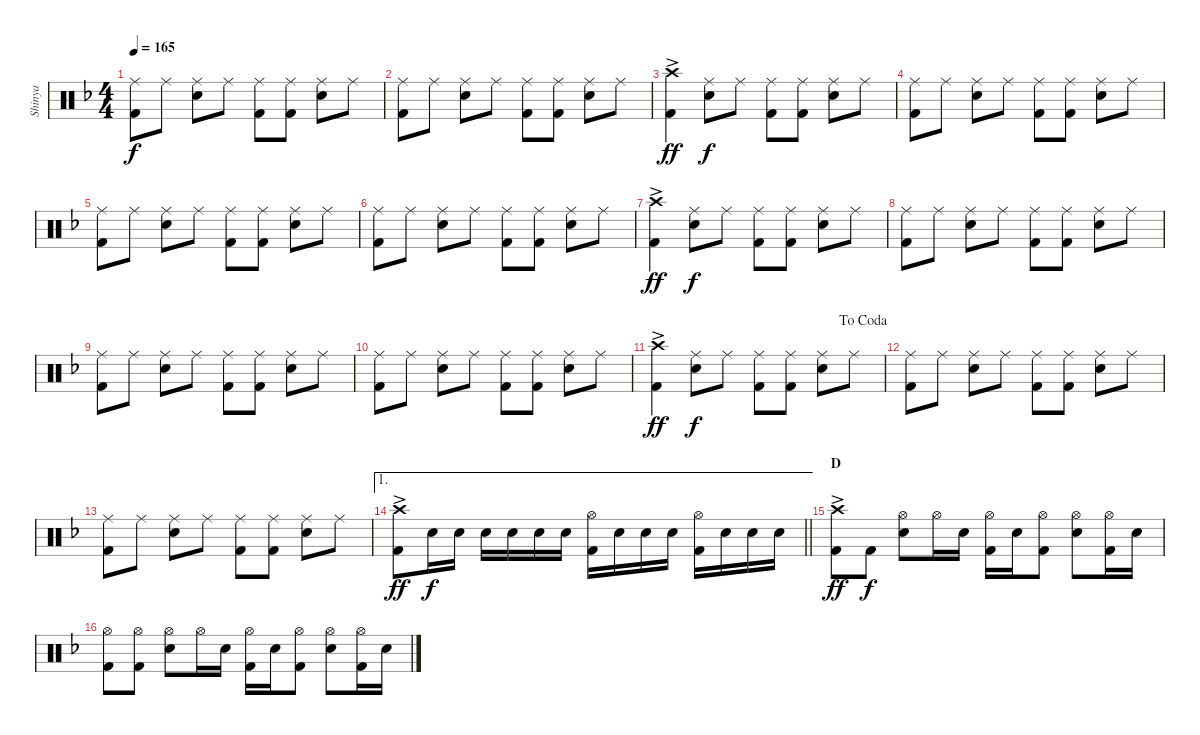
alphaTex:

\track ("Shinya" "Shinya") {instrument percussion}
\staff {score}
\articulation defaults
\ts (4 4)
\tempo 165
\clef neutral
\ks dminor
("Ride (middle)" "Kick (hit) 2").8{dy f} "Ride (middle)".8 ("Ride (middle)" "Snare (hit) 2").8 "Ride (middle)".8 ("Ride (middle)" "Kick (hit) 2").8 ("Ride (middle)" "Kick (hit) 2").8 ("Ride (middle)" "Snare (hit) 2").8 "Ride (middle)".8 |
("Ride (middle)" "Kick (hit) 2").8 "Ride (middle)".8 ("Ride (middle)" "Snare (hit) 2").8 "Ride (middle)".8 ("Ride (middle)" "Kick (hit) 2").8 ("Ride (middle)" "Kick (hit) 2").8 ("Ride (middle)" "Snare (hit) 2").8 "Ride (middle)".8 |
("Crash high (hit)"{ac} "Kick (hit) 2").4{dy ff} ("Ride (middle)" "Snare (hit) 2").8{dy f} "Ride (middle)".8 ("Ride (middle)" "Kick (hit) 2").8 ("Ride (middle)" "Kick (hit) 2").8 ("Ride (middle)" "Snare (hit) 2").8 "Ride (middle)".8 |
("Ride (middle)" "Kick (hit) 2").8 "Ride (middle)".8 ("Ride (middle)" "Snare (hit) 2").8 "Ride (middle)".8 ("Ride (middle)" "Kick (hit) 2").8 ("Ride (middle)" "Kick (hit) 2").8 ("Ride (middle)" "Snare (hit) 2").8 "Ride (middle)".8 |
("Ride (middle)" "Kick (hit) 2").8 "Ride (middle)".8 ("Ride (middle)" "Snare (hit) 2").8 "Ride (middle)".8 ("Ride (middle)" "Kick (hit) 2").8 ("Ride (middle)" "Kick (hit) 2").8 ("Ride (middle)" "Snare (hit) 2").8 "Ride (middle)".8 |
("Ride (middle)" "Kick (hit) 2").8 "Ride (middle)".8 ("Ride (middle)" "Snare (hit) 2").8 "Ride (middle)".8 ("Ride (middle)" "Kick (hit) 2").8 ("Ride (middle)" "Kick (hit) 2").8 ("Ride (middle)" "Snare (hit) 2").8 "Ride (middle)".8 |
("Crash high (hit)"{ac} "Kick (hit) 2").4{dy ff} ("Ride (middle)" "Snare (hit) 2").8{dy f} "Ride (middle)".8 ("Ride (middle)" "Kick (hit) 2").8 ("Ride (middle)" "Kick (hit) 2").8 ("Ride (middle)" "Snare (hit) 2").8 "Ride (middle)".8 |
("Ride (middle)" "Kick (hit) 2").8 "Ride (middle)".8 ("Ride (middle)" "Snare (hit) 2").8 "Ride (middle)".8 ("Ride (middle)" "Kick (hit) 2").8 ("Ride (middle)" "Kick (hit) 2").8 ("Ride (middle)" "Snare (hit) 2").8 "Ride (middle)".8 |
("Ride (middle)" "Kick (hit) 2").8 "Ride (middle)".8 ("Ride (middle)" "Snare (hit) 2").8 "Ride (middle)".8 ("Ride (middle)" "Kick (hit) 2").8 ("Ride (middle)" "Kick (hit) 2").8 ("Ride (middle)" "Snare (hit) 2").8 "Ride (middle)".8 |
("Ride (middle)" "Kick (hit) 2").8 "Ride (middle)".8 ("Ride (middle)" "Snare (hit) 2").8 "Ride (middle)".8 ("Ride (middle)" "Kick (hit) 2").8 ("Ride (middle)" "Kick (hit) 2").8 ("Ride (middle)" "Snare (hit) 2").8 "Ride (middle)".8 |
\jump dacoda
("Crash high (hit)"{ac} "Kick (hit) 2").4{dy ff} ("Ride (middle)" "Snare (hit) 2").8{dy f} "Ride (middle)".8 ("Ride (middle)" "Kick (hit) 2").8 ("Ride (middle)" "Kick (hit) 2").8 ("Ride (middle)" "Snare (hit) 2").8 "Ride (middle)".8 |
("Ride (middle)" "Kick (hit) 2").8 "Ride (middle)".8 ("Ride (middle)" "Snare (hit) 2").8 "Ride (middle)".8 ("Ride (middle)" "Kick (hit) 2").8 ("Ride (middle)" "Kick (hit) 2").8 ("Ride (middle)" "Snare (hit) 2").8 "Ride (middle)".8 |
("Ride (middle)" "Kick (hit) 2").8 "Ride (middle)".8 ("Ride (middle)" "Snare (hit) 2").8 "Ride (middle)".8 ("Ride (middle)" "Kick (hit) 2").8 ("Ride (middle)" "Kick (hit) 2").8 ("Ride (middle)" "Snare (hit) 2").8 "Ride (middle)".8 |
\ae 1
\barLineRight lightlight
("Crash high (hit)"{ac} "Kick (hit) 2").8{dy ff} "Snare (hit) 2".16{dy f} "Snare (hit) 2".16 "Snare (hit) 2".16 "Snare (hit) 2".16 "Snare (hit) 2".16 "Snare (hit) 2".16 ("Hi-Hat (open)" "Kick (hit) 2").16 "Snare (hit) 2".16 "Snare (hit) 2".16 "Snare (hit) 2".16 ("Hi-Hat (open)" "Kick (hit) 2").16 "Snare (hit) 2".16 "Snare (hit) 2".16 "Snare (hit) 2".16 |
\section ("" "D")
("Crash high (hit)"{ac} "Kick (hit) 2").8{dy ff} "Kick (hit) 2".8{dy f} ("Hi-Hat (open)" "Snare (hit) 2").8 "Hi-Hat (open)".16 "Snare (hit) 2".16 ("Hi-Hat (open)" "Kick (hit) 2").16 "Snare (hit) 2".16 ("Hi-Hat (open)" "Kick (hit) 2").8 ("Hi-Hat (open)" "Snare (hit) 2").8 ("Hi-Hat (open)" "Kick (hit) 2").16 "Snare (hit) 2".16 |
("Hi-Hat (open)" "Kick (hit) 2").8 ("Hi-Hat (open)" "Kick (hit) 2").8 ("Hi-Hat (open)" "Snare (hit) 2").8 "Hi-Hat (open)".16 "Snare (hit) 2".16 ("Hi-Hat (open)" "Kick (hit) 2").16 "Snare (hit) 2".16 ("Hi-Hat (open)" "Kick (hit) 2").8 ("Hi-Hat (open)" "Snare (hit) 2").8 ("Hi-Hat (open)" "Kick (hit) 2").16 "Snare (hit) 2".16
